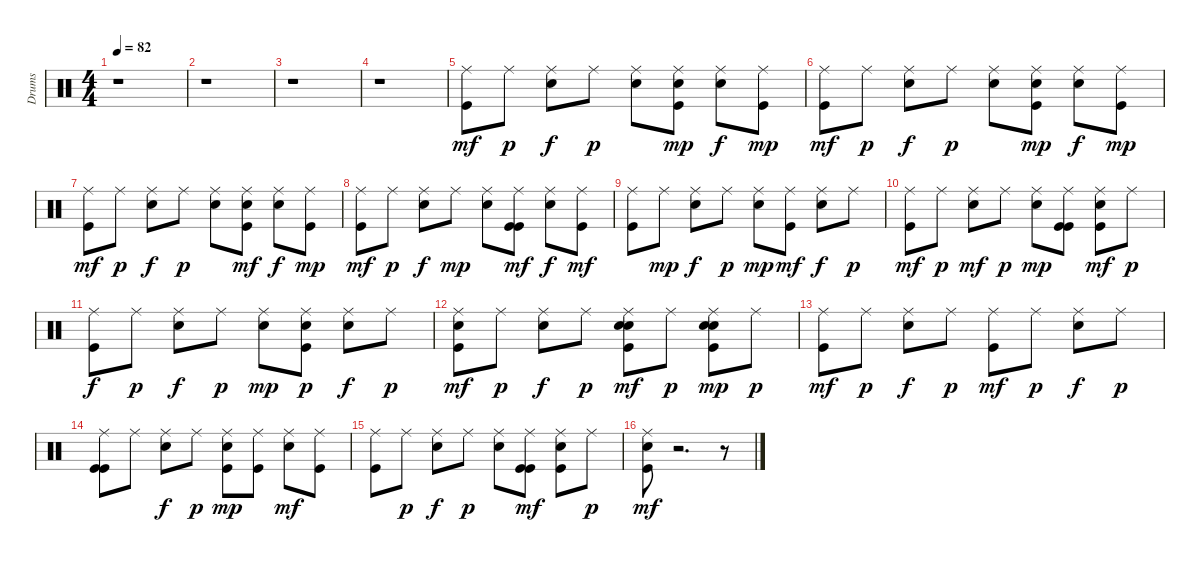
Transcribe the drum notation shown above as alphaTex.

\track ("Drums" "Drums") {instrument percussion}
\staff {score}
\articulation defaults
\ts (4 4)
\tempo 82
\clef neutral
\ks c
r.1{dy mf} |
r.1 |
r.1 |
r.1 |
("Ride (middle)" "Kick (hit)").8 "Ride (middle)".8{dy p} ("Ride (middle)" "Electric Snare (hit)").8{dy f} "Ride (middle)".8{dy p} ("Electric Snare (hit)" "Ride (middle)").8 ("Electric Snare (hit)" "Ride (middle)" "Kick (hit)").8{dy mp} ("Ride (middle)" "Electric Snare (hit)").8{dy f} ("Ride (middle)" "Kick (hit)").8{dy mp} |
("Ride (middle)" "Kick (hit)").8{dy mf} "Ride (middle)".8{dy p} ("Ride (middle)" "Electric Snare (hit)").8{dy f} "Ride (middle)".8{dy p} ("Electric Snare (hit)" "Ride (middle)").8 ("Electric Snare (hit)" "Ride (middle)" "Kick (hit)").8{dy mp} ("Electric Snare (hit)" "Ride (middle)").8{dy f} ("Ride (middle)" "Kick (hit)").8{dy mp} |
("Ride (middle)" "Kick (hit)").8{dy mf} "Ride (middle)".8{dy p} ("Ride (middle)" "Electric Snare (hit)").8{dy f} "Ride (middle)".8{dy p} ("Electric Snare (hit)" "Ride (middle)").8 ("Electric Snare (hit)" "Ride (middle)" "Kick (hit)").8{dy mf} ("Electric Snare (hit)" "Ride (middle)").8{dy f} ("Ride (middle)" "Kick (hit)").8{dy mp} |
("Ride (middle)" "Kick (hit)").8{dy mf} "Ride (middle)".8{dy p} ("Ride (middle)" "Electric Snare (hit)").8{dy f} "Ride (middle)".8{dy mp} ("Electric Snare (hit)" "Ride (middle)").8 ("Kick (hit)" "Ride (middle)" "Kick (hit)").8{dy mf} ("Ride (middle)" "Electric Snare (hit)").8{dy f} ("Ride (middle)" "Kick (hit)").8{dy mf} |
("Ride (middle)" "Kick (hit)").8 "Ride (middle)".8{dy mp} ("Ride (middle)" "Electric Snare (hit)").8{dy f} "Ride (middle)".8{dy p} ("Electric Snare (hit)" "Ride (middle)").8{dy mp} ("Ride (middle)" "Kick (hit)").8{dy mf} ("Ride (middle)" "Electric Snare (hit)").8{dy f} "Ride (middle)".8{dy p} |
("Ride (middle)" "Kick (hit)").8{dy mf} "Ride (middle)".8{dy p} ("Electric Snare (hit)" "Ride (middle)").8{dy mf} "Ride (middle)".8{dy p} ("Electric Snare (hit)" "Ride (middle)").8{dy mp} ("Kick (hit)" "Ride (middle)" "Kick (hit)").8 ("Electric Snare (hit)" "Kick (hit)" "Ride (middle)").8{dy mf} "Ride (middle)".8{dy p} |
("Kick (hit)" "Ride (middle)").8{dy f} "Ride (middle)".8{dy p} ("Ride (middle)" "Electric Snare (hit)").8{dy f} "Ride (middle)".8{dy p} ("Electric Snare (hit)" "Ride (middle)").8{dy mp} ("Electric Snare (hit)" "Kick (hit)" "Ride (middle)").8{dy p} ("Ride (middle)" "Electric Snare (hit)").8{dy f} "Ride (middle)".8{dy p} |
("Electric Snare (hit)" "Ride (middle)" "Kick (hit)").8{dy mf} "Ride (middle)".8{dy p} ("Electric Snare (hit)" "Ride (middle)").8{dy f} "Ride (middle)".8{dy p} ("Electric Snare (hit)" "Ride (middle)" "Electric Snare (hit)" "Kick (hit)").8{dy mf} "Ride (middle)".8{dy p} ("Electric Snare (hit)" "Ride (middle)" "Electric Snare (hit)" "Kick (hit)").8{dy mp} "Ride (middle)".8{dy p} |
("Ride (middle)" "Kick (hit)").8{dy mf} "Ride (middle)".8{dy p} ("Ride (middle)" "Electric Snare (hit)").8{dy f} "Ride (middle)".8{dy p} ("Ride (middle)" "Kick (hit)").8{dy mf} "Ride (middle)".8{dy p} ("Ride (middle)" "Electric Snare (hit)").8{dy f} "Ride (middle)".8{dy p} |
("Kick (hit)" "Ride (middle)" "Kick (hit)").8 "Ride (middle)".8 ("Ride (middle)" "Electric Snare (hit)").8{dy f} "Ride (middle)".8{dy p} ("Ride (middle)" "Kick (hit)" "Electric Snare (hit)").8{dy mp} ("Ride (middle)" "Kick (hit)").8 ("Ride (middle)" "Electric Snare (hit)").8{dy mf} ("Ride (middle)" "Kick (hit)").8 |
("Ride (middle)" "Kick (hit)").8 "Ride (middle)".8{dy p} ("Ride (middle)" "Electric Snare (hit)").8{dy f} "Ride (middle)".8{dy p} ("Electric Snare (hit)" "Ride (middle)").8 ("Kick (hit)" "Ride (middle)" "Kick (hit)").8{dy mf} ("Electric Snare (hit)" "Ride (middle)" "Kick (hit)").8 "Ride (middle)".8{dy p} |
("Electric Snare (hit)" "Ride (middle)" "Kick (hit)").8{dy mf} r.2{d} r.8
